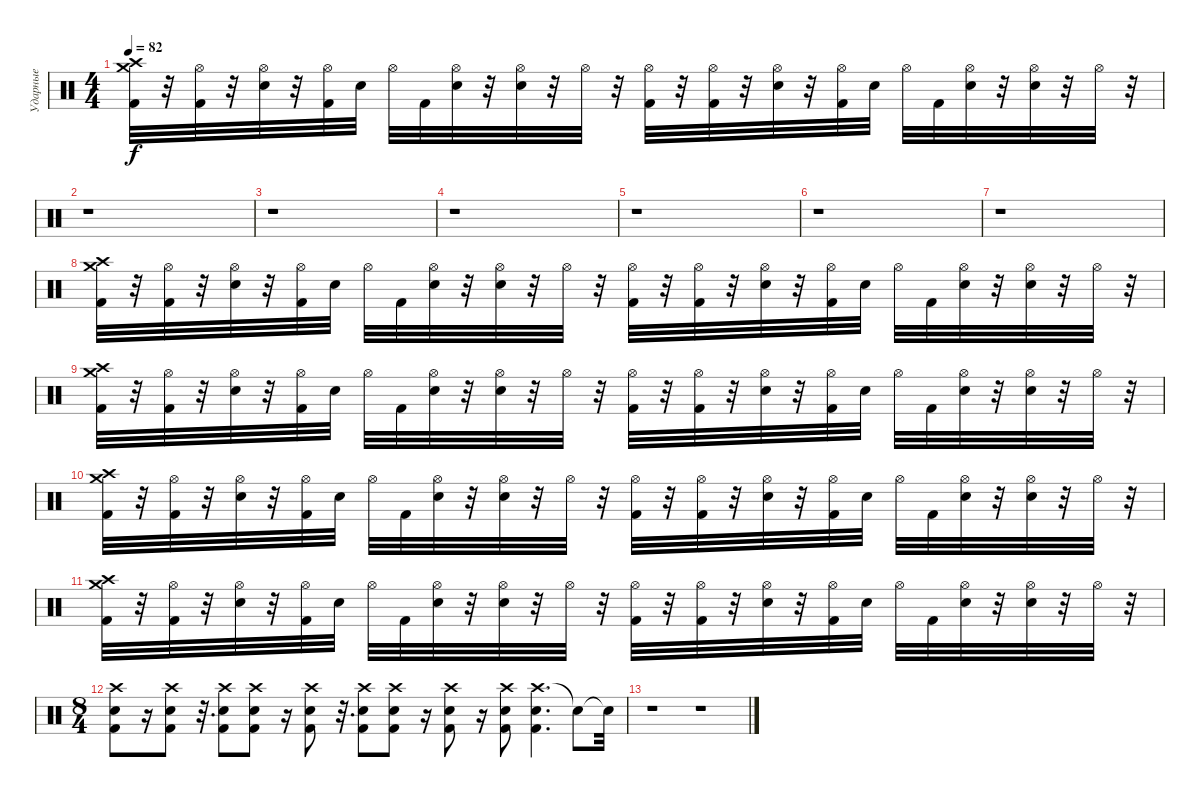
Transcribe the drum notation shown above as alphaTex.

\track ("Ударные" "Ударные") {instrument percussion}
\staff {score}
\articulation defaults
\ts (4 4)
\tempo 82
\clef neutral
\ks c
("Crash high (hit)" "Crash medium (hit)" "Kick (hit) 2").32{dy f} r.32 ("Hi-Hat (open)" "Kick (hit) 2").32 r.32 ("Hi-Hat (open)" "Electric Snare (hit)").32 r.32 ("Hi-Hat (open)" "Kick (hit) 2").32 "Electric Snare (hit)".32 "Hi-Hat (open)".32 "Kick (hit) 2".32 ("Hi-Hat (open)" "Electric Snare (hit)").32 r.32 ("Hi-Hat (open)" "Electric Snare (hit)").32 r.32 "Hi-Hat (open)".32 r.32 ("Hi-Hat (open)" "Kick (hit) 2").32 r.32 ("Hi-Hat (open)" "Kick (hit) 2").32 r.32 ("Hi-Hat (open)" "Electric Snare (hit)").32 r.32 ("Hi-Hat (open)" "Kick (hit) 2").32 "Electric Snare (hit)".32 "Hi-Hat (open)".32 "Kick (hit) 2".32 ("Hi-Hat (open)" "Electric Snare (hit)").32 r.32 ("Hi-Hat (open)" "Electric Snare (hit)").32 r.32 "Hi-Hat (open)".32 r.32 |
r.1 |
r.1 |
r.1 |
r.1 |
r.1 |
r.1 |
("Crash high (hit)" "Crash medium (hit)" "Kick (hit) 2").32 r.32 ("Hi-Hat (open)" "Kick (hit) 2").32 r.32 ("Hi-Hat (open)" "Electric Snare (hit)").32 r.32 ("Hi-Hat (open)" "Kick (hit) 2").32 "Electric Snare (hit)".32 "Hi-Hat (open)".32 "Kick (hit) 2".32 ("Hi-Hat (open)" "Electric Snare (hit)").32 r.32 ("Hi-Hat (open)" "Electric Snare (hit)").32 r.32 "Hi-Hat (open)".32 r.32 ("Hi-Hat (open)" "Kick (hit) 2").32 r.32 ("Hi-Hat (open)" "Kick (hit) 2").32 r.32 ("Hi-Hat (open)" "Electric Snare (hit)").32 r.32 ("Hi-Hat (open)" "Kick (hit) 2").32 "Electric Snare (hit)".32 "Hi-Hat (open)".32 "Kick (hit) 2".32 ("Hi-Hat (open)" "Electric Snare (hit)").32 r.32 ("Hi-Hat (open)" "Electric Snare (hit)").32 r.32 "Hi-Hat (open)".32 r.32 |
("Crash high (hit)" "Crash medium (hit)" "Kick (hit) 2").32 r.32 ("Hi-Hat (open)" "Kick (hit) 2").32 r.32 ("Hi-Hat (open)" "Electric Snare (hit)").32 r.32 ("Hi-Hat (open)" "Kick (hit) 2").32 "Electric Snare (hit)".32 "Hi-Hat (open)".32 "Kick (hit) 2".32 ("Hi-Hat (open)" "Electric Snare (hit)").32 r.32 ("Hi-Hat (open)" "Electric Snare (hit)").32 r.32 "Hi-Hat (open)".32 r.32 ("Hi-Hat (open)" "Kick (hit) 2").32 r.32 ("Hi-Hat (open)" "Kick (hit) 2").32 r.32 ("Hi-Hat (open)" "Electric Snare (hit)").32 r.32 ("Hi-Hat (open)" "Kick (hit) 2").32 "Electric Snare (hit)".32 "Hi-Hat (open)".32 "Kick (hit) 2".32 ("Hi-Hat (open)" "Electric Snare (hit)").32 r.32 ("Hi-Hat (open)" "Electric Snare (hit)").32 r.32 "Hi-Hat (open)".32 r.32 |
("Crash high (hit)" "Crash medium (hit)" "Kick (hit) 2").32 r.32 ("Hi-Hat (open)" "Kick (hit) 2").32 r.32 ("Hi-Hat (open)" "Electric Snare (hit)").32 r.32 ("Hi-Hat (open)" "Kick (hit) 2").32 "Electric Snare (hit)".32 "Hi-Hat (open)".32 "Kick (hit) 2".32 ("Hi-Hat (open)" "Electric Snare (hit)").32 r.32 ("Hi-Hat (open)" "Electric Snare (hit)").32 r.32 "Hi-Hat (open)".32 r.32 ("Hi-Hat (open)" "Kick (hit) 2").32 r.32 ("Hi-Hat (open)" "Kick (hit) 2").32 r.32 ("Hi-Hat (open)" "Electric Snare (hit)").32 r.32 ("Hi-Hat (open)" "Kick (hit) 2").32 "Electric Snare (hit)".32 "Hi-Hat (open)".32 "Kick (hit) 2".32 ("Hi-Hat (open)" "Electric Snare (hit)").32 r.32 ("Hi-Hat (open)" "Electric Snare (hit)").32 r.32 "Hi-Hat (open)".32 r.32 |
("Crash high (hit)" "Crash medium (hit)" "Kick (hit) 2").32 r.32 ("Hi-Hat (open)" "Kick (hit) 2").32 r.32 ("Hi-Hat (open)" "Electric Snare (hit)").32 r.32 ("Hi-Hat (open)" "Kick (hit) 2").32 "Electric Snare (hit)".32 "Hi-Hat (open)".32 "Kick (hit) 2".32 ("Hi-Hat (open)" "Electric Snare (hit)").32 r.32 ("Hi-Hat (open)" "Electric Snare (hit)").32 r.32 "Hi-Hat (open)".32 r.32 ("Hi-Hat (open)" "Kick (hit) 2").32 r.32 ("Hi-Hat (open)" "Kick (hit) 2").32 r.32 ("Hi-Hat (open)" "Electric Snare (hit)").32 r.32 ("Hi-Hat (open)" "Kick (hit) 2").32 "Electric Snare (hit)".32 "Hi-Hat (open)".32 "Kick (hit) 2".32 ("Hi-Hat (open)" "Electric Snare (hit)").32 r.32 ("Hi-Hat (open)" "Electric Snare (hit)").32 r.32 "Hi-Hat (open)".32 r.32 |
\ts (8 4)
("Crash high (hit)" "Electric Snare (hit)" "Kick (hit) 2").8 r.16 ("Crash high (hit)" "Electric Snare (hit)" "Kick (hit) 2").8 r.32{d} ("Crash high (hit)" "Electric Snare (hit)" "Kick (hit) 2").8 ("Crash high (hit)" "Electric Snare (hit)" "Kick (hit) 2").8 r.16 ("Crash high (hit)" "Electric Snare (hit)" "Kick (hit) 2").8 r.32{d} ("Crash high (hit)" "Electric Snare (hit)" "Kick (hit) 2").8 ("Crash high (hit)" "Electric Snare (hit)" "Kick (hit) 2").8 r.16 ("Crash high (hit)" "Electric Snare (hit)" "Kick (hit) 2").8 r.16 ("Crash high (hit)" "Electric Snare (hit)" "Kick (hit) 2").8 ("Crash high (hit)" "Electric Snare (hit)" "Kick (hit) 2").4{d} "Snare (hit)"{t}.8 "Snare (hit)"{t}.32 |
r.1 r.1
